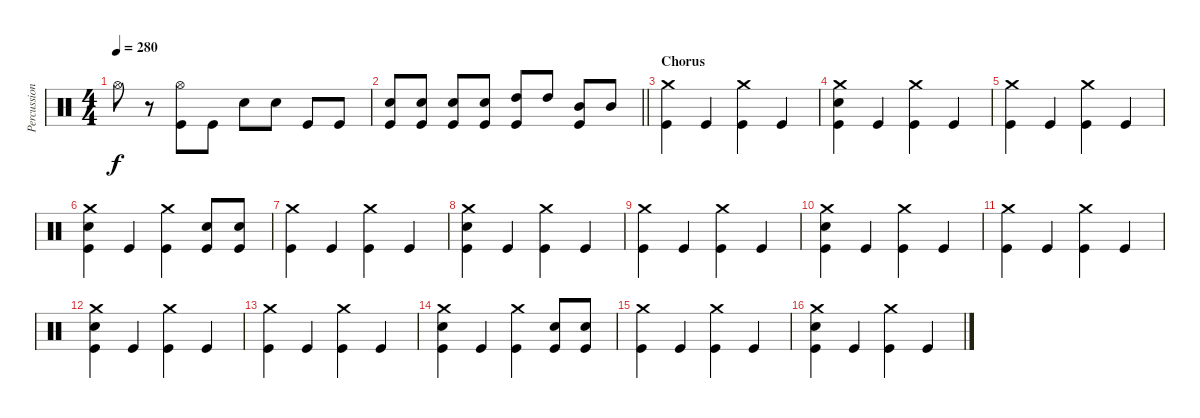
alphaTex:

\track ("Percussion" "Percussion") {instrument percussion}
\staff {score}
\articulation defaults
\ts (4 4)
\tempo 280
\clef neutral
\ks c "Hi-Hat (open)".8{dy f}
r.8 ("Hi-Hat (open)" "Kick (hit)").8 "Kick (hit)".8 "Electric Snare (hit)".8 "Electric Snare (hit)".8 "Kick (hit)".8 "Kick (hit)".8 |
\barLineRight lightlight
("Electric Snare (hit)" "Kick (hit)").8 ("Electric Snare (hit)" "Kick (hit)").8 ("Electric Snare (hit)" "Kick (hit)").8 ("Electric Snare (hit)" "Kick (hit)").8 ("High Tom (hit)" "Kick (hit)").8 "High Tom (hit)".8 ("Mid Tom (hit)" "Kick (hit)").8 "Mid Tom (hit)".8 |
\section ("" "Chorus")
("Crash medium (hit)" "Kick (hit)").4 "Kick (hit)".4 ("Crash medium (hit)" "Kick (hit)").4 "Kick (hit)".4 |
("Crash medium (hit)" "Electric Snare (hit)" "Kick (hit)").4 "Kick (hit)".4 ("Crash medium (hit)" "Kick (hit)").4 "Kick (hit)".4 |
("Crash medium (hit)" "Kick (hit)").4 "Kick (hit)".4 ("Crash medium (hit)" "Kick (hit)").4 "Kick (hit)".4 |
("Crash medium (hit)" "Electric Snare (hit)" "Kick (hit)").4 "Kick (hit)".4 ("Crash medium (hit)" "Kick (hit)").4 ("Electric Snare (hit)" "Kick (hit)").8 ("Electric Snare (hit)" "Kick (hit)").8 |
("Crash medium (hit)" "Kick (hit)").4 "Kick (hit)".4 ("Crash medium (hit)" "Kick (hit)").4 "Kick (hit)".4 |
("Crash medium (hit)" "Electric Snare (hit)" "Kick (hit)").4 "Kick (hit)".4 ("Crash medium (hit)" "Kick (hit)").4 "Kick (hit)".4 |
("Crash medium (hit)" "Kick (hit)").4 "Kick (hit)".4 ("Crash medium (hit)" "Kick (hit)").4 "Kick (hit)".4 |
("Crash medium (hit)" "Electric Snare (hit)" "Kick (hit)").4 "Kick (hit)".4 ("Crash medium (hit)" "Kick (hit)").4 "Kick (hit)".4 |
("Crash medium (hit)" "Kick (hit)").4 "Kick (hit)".4 ("Crash medium (hit)" "Kick (hit)").4 "Kick (hit)".4 |
("Crash medium (hit)" "Electric Snare (hit)" "Kick (hit)").4 "Kick (hit)".4 ("Crash medium (hit)" "Kick (hit)").4 "Kick (hit)".4 |
("Crash medium (hit)" "Kick (hit)").4 "Kick (hit)".4 ("Crash medium (hit)" "Kick (hit)").4 "Kick (hit)".4 |
("Crash medium (hit)" "Electric Snare (hit)" "Kick (hit)").4 "Kick (hit)".4 ("Crash medium (hit)" "Kick (hit)").4 ("Electric Snare (hit)" "Kick (hit)").8 ("Electric Snare (hit)" "Kick (hit)").8 |
("Crash medium (hit)" "Kick (hit)").4 "Kick (hit)".4 ("Crash medium (hit)" "Kick (hit)").4 "Kick (hit)".4 |
("Crash medium (hit)" "Electric Snare (hit)" "Kick (hit)").4 "Kick (hit)".4 ("Crash medium (hit)" "Kick (hit)").4 "Kick (hit)".4
